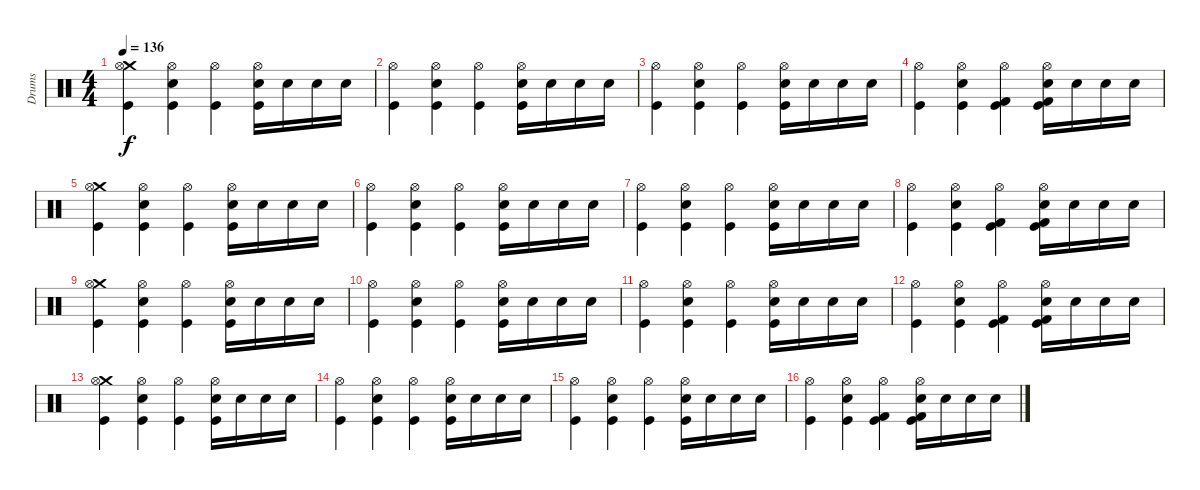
\track ("Drums" "Drums") {instrument percussion}
\staff {score}
\articulation defaults
\ts (4 4)
\tempo 136
\clef neutral
\ks c
("Crash medium (hit)" "Hi-Hat (open)" "Kick (hit)").4{dy f} ("Hi-Hat (open)" "Electric Snare (hit)" "Kick (hit)").4 ("Hi-Hat (open)" "Kick (hit)").4 ("Hi-Hat (open)" "Electric Snare (hit)" "Kick (hit)").16 "Electric Snare (hit)".16 "Electric Snare (hit)".16 "Electric Snare (hit)".16 |
("Hi-Hat (open)" "Kick (hit)").4 ("Hi-Hat (open)" "Electric Snare (hit)" "Kick (hit)").4 ("Hi-Hat (open)" "Kick (hit)").4 ("Hi-Hat (open)" "Electric Snare (hit)" "Kick (hit)").16 "Electric Snare (hit)".16 "Electric Snare (hit)".16 "Electric Snare (hit)".16 |
("Hi-Hat (open)" "Kick (hit)").4 ("Hi-Hat (open)" "Electric Snare (hit)" "Kick (hit)").4 ("Hi-Hat (open)" "Kick (hit)").4 ("Hi-Hat (open)" "Electric Snare (hit)" "Kick (hit)").16 "Electric Snare (hit)".16 "Electric Snare (hit)".16 "Electric Snare (hit)".16 |
("Hi-Hat (open)" "Kick (hit)").4 ("Hi-Hat (open)" "Electric Snare (hit)" "Kick (hit)").4 ("Hi-Hat (open)" "Kick (hit) 2" "Kick (hit)").4 ("Hi-Hat (open)" "Electric Snare (hit)" "Kick (hit) 2" "Kick (hit)").16 "Electric Snare (hit)".16 "Electric Snare (hit)".16 "Electric Snare (hit)".16 |
("Crash medium (hit)" "Hi-Hat (open)" "Kick (hit)").4 ("Hi-Hat (open)" "Electric Snare (hit)" "Kick (hit)").4 ("Hi-Hat (open)" "Kick (hit)").4 ("Hi-Hat (open)" "Electric Snare (hit)" "Kick (hit)").16 "Electric Snare (hit)".16 "Electric Snare (hit)".16 "Electric Snare (hit)".16 |
("Hi-Hat (open)" "Kick (hit)").4 ("Hi-Hat (open)" "Electric Snare (hit)" "Kick (hit)").4 ("Hi-Hat (open)" "Kick (hit)").4 ("Hi-Hat (open)" "Electric Snare (hit)" "Kick (hit)").16 "Electric Snare (hit)".16 "Electric Snare (hit)".16 "Electric Snare (hit)".16 |
("Hi-Hat (open)" "Kick (hit)").4 ("Hi-Hat (open)" "Electric Snare (hit)" "Kick (hit)").4 ("Hi-Hat (open)" "Kick (hit)").4 ("Hi-Hat (open)" "Electric Snare (hit)" "Kick (hit)").16 "Electric Snare (hit)".16 "Electric Snare (hit)".16 "Electric Snare (hit)".16 |
("Hi-Hat (open)" "Kick (hit)").4 ("Hi-Hat (open)" "Electric Snare (hit)" "Kick (hit)").4 ("Hi-Hat (open)" "Kick (hit) 2" "Kick (hit)").4 ("Hi-Hat (open)" "Electric Snare (hit)" "Kick (hit) 2" "Kick (hit)").16 "Electric Snare (hit)".16 "Electric Snare (hit)".16 "Electric Snare (hit)".16 |
("Crash medium (hit)" "Hi-Hat (open)" "Kick (hit)").4 ("Hi-Hat (open)" "Electric Snare (hit)" "Kick (hit)").4 ("Hi-Hat (open)" "Kick (hit)").4 ("Hi-Hat (open)" "Electric Snare (hit)" "Kick (hit)").16 "Electric Snare (hit)".16 "Electric Snare (hit)".16 "Electric Snare (hit)".16 |
("Hi-Hat (open)" "Kick (hit)").4 ("Hi-Hat (open)" "Electric Snare (hit)" "Kick (hit)").4 ("Hi-Hat (open)" "Kick (hit)").4 ("Hi-Hat (open)" "Electric Snare (hit)" "Kick (hit)").16 "Electric Snare (hit)".16 "Electric Snare (hit)".16 "Electric Snare (hit)".16 |
("Hi-Hat (open)" "Kick (hit)").4 ("Hi-Hat (open)" "Electric Snare (hit)" "Kick (hit)").4 ("Hi-Hat (open)" "Kick (hit)").4 ("Hi-Hat (open)" "Electric Snare (hit)" "Kick (hit)").16 "Electric Snare (hit)".16 "Electric Snare (hit)".16 "Electric Snare (hit)".16 |
("Hi-Hat (open)" "Kick (hit)").4 ("Hi-Hat (open)" "Electric Snare (hit)" "Kick (hit)").4 ("Hi-Hat (open)" "Kick (hit) 2" "Kick (hit)").4 ("Hi-Hat (open)" "Electric Snare (hit)" "Kick (hit) 2" "Kick (hit)").16 "Electric Snare (hit)".16 "Electric Snare (hit)".16 "Electric Snare (hit)".16 |
("Crash medium (hit)" "Hi-Hat (open)" "Kick (hit)").4 ("Hi-Hat (open)" "Electric Snare (hit)" "Kick (hit)").4 ("Hi-Hat (open)" "Kick (hit)").4 ("Hi-Hat (open)" "Electric Snare (hit)" "Kick (hit)").16 "Electric Snare (hit)".16 "Electric Snare (hit)".16 "Electric Snare (hit)".16 |
("Hi-Hat (open)" "Kick (hit)").4 ("Hi-Hat (open)" "Electric Snare (hit)" "Kick (hit)").4 ("Hi-Hat (open)" "Kick (hit)").4 ("Hi-Hat (open)" "Electric Snare (hit)" "Kick (hit)").16 "Electric Snare (hit)".16 "Electric Snare (hit)".16 "Electric Snare (hit)".16 |
("Hi-Hat (open)" "Kick (hit)").4 ("Hi-Hat (open)" "Electric Snare (hit)" "Kick (hit)").4 ("Hi-Hat (open)" "Kick (hit)").4 ("Hi-Hat (open)" "Electric Snare (hit)" "Kick (hit)").16 "Electric Snare (hit)".16 "Electric Snare (hit)".16 "Electric Snare (hit)".16 |
("Hi-Hat (open)" "Kick (hit)").4 ("Hi-Hat (open)" "Electric Snare (hit)" "Kick (hit)").4 ("Hi-Hat (open)" "Kick (hit) 2" "Kick (hit)").4 ("Hi-Hat (open)" "Electric Snare (hit)" "Kick (hit) 2" "Kick (hit)").16 "Electric Snare (hit)".16 "Electric Snare (hit)".16 "Electric Snare (hit)".16
